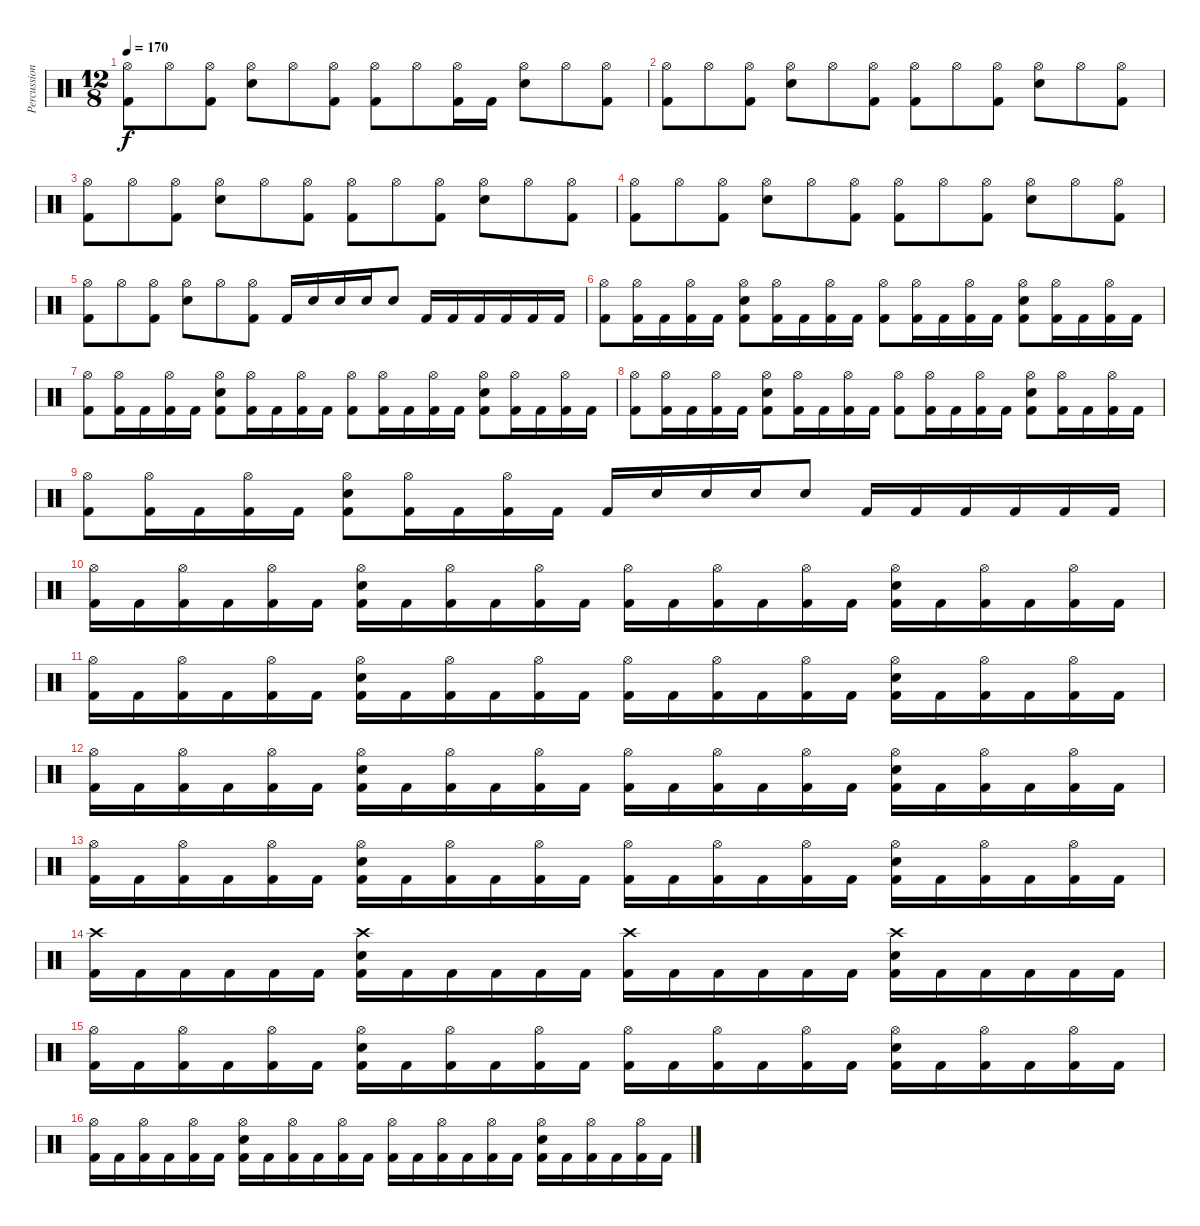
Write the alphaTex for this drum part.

\track ("Percussion" "Percussion") {instrument percussion}
\staff {score}
\articulation defaults
\ts (12 8)
\tempo 170
\clef neutral
\ks c
("Kick (hit) 2" "Hi-Hat (open)").8{dy f} "Hi-Hat (open)".8 ("Kick (hit) 2" "Hi-Hat (open)").8 ("Snare (hit) 2" "Hi-Hat (open)").8 "Hi-Hat (open)".8 ("Kick (hit) 2" "Hi-Hat (open)").8 ("Kick (hit) 2" "Hi-Hat (open)").8 "Hi-Hat (open)".8 ("Kick (hit) 2" "Hi-Hat (open)").16 "Kick (hit) 2".16 ("Snare (hit) 2" "Hi-Hat (open)").8 "Hi-Hat (open)".8 ("Kick (hit) 2" "Hi-Hat (open)").8 |
("Kick (hit) 2" "Hi-Hat (open)").8 "Hi-Hat (open)".8 ("Kick (hit) 2" "Hi-Hat (open)").8 ("Snare (hit) 2" "Hi-Hat (open)").8 "Hi-Hat (open)".8 ("Kick (hit) 2" "Hi-Hat (open)").8 ("Kick (hit) 2" "Hi-Hat (open)").8 "Hi-Hat (open)".8 ("Kick (hit) 2" "Hi-Hat (open)").8 ("Snare (hit) 2" "Hi-Hat (open)").8 "Hi-Hat (open)".8 ("Kick (hit) 2" "Hi-Hat (open)").8 |
("Kick (hit) 2" "Hi-Hat (open)").8 "Hi-Hat (open)".8 ("Kick (hit) 2" "Hi-Hat (open)").8 ("Snare (hit) 2" "Hi-Hat (open)").8 "Hi-Hat (open)".8 ("Kick (hit) 2" "Hi-Hat (open)").8 ("Kick (hit) 2" "Hi-Hat (open)").8 "Hi-Hat (open)".8 ("Kick (hit) 2" "Hi-Hat (open)").8 ("Snare (hit) 2" "Hi-Hat (open)").8 "Hi-Hat (open)".8 ("Kick (hit) 2" "Hi-Hat (open)").8 |
("Kick (hit) 2" "Hi-Hat (open)").8 "Hi-Hat (open)".8 ("Kick (hit) 2" "Hi-Hat (open)").8 ("Snare (hit) 2" "Hi-Hat (open)").8 "Hi-Hat (open)".8 ("Kick (hit) 2" "Hi-Hat (open)").8 ("Kick (hit) 2" "Hi-Hat (open)").8 "Hi-Hat (open)".8 ("Kick (hit) 2" "Hi-Hat (open)").8 ("Snare (hit) 2" "Hi-Hat (open)").8 "Hi-Hat (open)".8 ("Kick (hit) 2" "Hi-Hat (open)").8 |
("Kick (hit) 2" "Hi-Hat (open)").8 "Hi-Hat (open)".8 ("Kick (hit) 2" "Hi-Hat (open)").8 ("Snare (hit) 2" "Hi-Hat (open)").8 "Hi-Hat (open)".8 ("Kick (hit) 2" "Hi-Hat (open)").8 "Kick (hit) 2".16 "Snare (hit) 2".16 "Snare (hit) 2".16 "Snare (hit) 2".16 "Snare (hit) 2".8 "Kick (hit) 2".16 "Kick (hit) 2".16 "Kick (hit) 2".16 "Kick (hit) 2".16 "Kick (hit) 2".16 "Kick (hit) 2".16 |
("Kick (hit) 2" "Hi-Hat (open)").8 ("Kick (hit) 2" "Hi-Hat (open)").16 "Kick (hit) 2".16 ("Kick (hit) 2" "Hi-Hat (open)").16 "Kick (hit) 2".16 ("Kick (hit) 2" "Snare (hit) 2" "Hi-Hat (open)").8 ("Kick (hit) 2" "Hi-Hat (open)").16 "Kick (hit) 2".16 ("Kick (hit) 2" "Hi-Hat (open)").16 "Kick (hit) 2".16 ("Kick (hit) 2" "Hi-Hat (open)").8 ("Kick (hit) 2" "Hi-Hat (open)").16 "Kick (hit) 2".16 ("Kick (hit) 2" "Hi-Hat (open)").16 "Kick (hit) 2".16 ("Kick (hit) 2" "Snare (hit) 2" "Hi-Hat (open)").8 ("Kick (hit) 2" "Hi-Hat (open)").16 "Kick (hit) 2".16 ("Kick (hit) 2" "Hi-Hat (open)").16 "Kick (hit) 2".16 |
("Kick (hit) 2" "Hi-Hat (open)").8 ("Kick (hit) 2" "Hi-Hat (open)").16 "Kick (hit) 2".16 ("Kick (hit) 2" "Hi-Hat (open)").16 "Kick (hit) 2".16 ("Kick (hit) 2" "Snare (hit) 2" "Hi-Hat (open)").8 ("Kick (hit) 2" "Hi-Hat (open)").16 "Kick (hit) 2".16 ("Kick (hit) 2" "Hi-Hat (open)").16 "Kick (hit) 2".16 ("Kick (hit) 2" "Hi-Hat (open)").8 ("Kick (hit) 2" "Hi-Hat (open)").16 "Kick (hit) 2".16 ("Kick (hit) 2" "Hi-Hat (open)").16 "Kick (hit) 2".16 ("Kick (hit) 2" "Snare (hit) 2" "Hi-Hat (open)").8 ("Kick (hit) 2" "Hi-Hat (open)").16 "Kick (hit) 2".16 ("Kick (hit) 2" "Hi-Hat (open)").16 "Kick (hit) 2".16 |
("Kick (hit) 2" "Hi-Hat (open)").8 ("Kick (hit) 2" "Hi-Hat (open)").16 "Kick (hit) 2".16 ("Kick (hit) 2" "Hi-Hat (open)").16 "Kick (hit) 2".16 ("Kick (hit) 2" "Snare (hit) 2" "Hi-Hat (open)").8 ("Kick (hit) 2" "Hi-Hat (open)").16 "Kick (hit) 2".16 ("Kick (hit) 2" "Hi-Hat (open)").16 "Kick (hit) 2".16 ("Kick (hit) 2" "Hi-Hat (open)").8 ("Kick (hit) 2" "Hi-Hat (open)").16 "Kick (hit) 2".16 ("Kick (hit) 2" "Hi-Hat (open)").16 "Kick (hit) 2".16 ("Kick (hit) 2" "Snare (hit) 2" "Hi-Hat (open)").8 ("Kick (hit) 2" "Hi-Hat (open)").16 "Kick (hit) 2".16 ("Kick (hit) 2" "Hi-Hat (open)").16 "Kick (hit) 2".16 |
("Kick (hit) 2" "Hi-Hat (open)").8 ("Kick (hit) 2" "Hi-Hat (open)").16 "Kick (hit) 2".16 ("Kick (hit) 2" "Hi-Hat (open)").16 "Kick (hit) 2".16 ("Kick (hit) 2" "Snare (hit) 2" "Hi-Hat (open)").8 ("Kick (hit) 2" "Hi-Hat (open)").16 "Kick (hit) 2".16 ("Kick (hit) 2" "Hi-Hat (open)").16 "Kick (hit) 2".16 "Kick (hit) 2".16 "Snare (hit) 2".16 "Snare (hit) 2".16 "Snare (hit) 2".16 "Snare (hit) 2".8 "Kick (hit) 2".16 "Kick (hit) 2".16 "Kick (hit) 2".16 "Kick (hit) 2".16 "Kick (hit) 2".16 "Kick (hit) 2".16 |
("Kick (hit) 2" "Hi-Hat (open)").16 "Kick (hit) 2".16 ("Kick (hit) 2" "Hi-Hat (open)").16 "Kick (hit) 2".16 ("Kick (hit) 2" "Hi-Hat (open)").16 "Kick (hit) 2".16 ("Kick (hit) 2" "Snare (hit) 2" "Hi-Hat (open)").16 "Kick (hit) 2".16 ("Kick (hit) 2" "Hi-Hat (open)").16 "Kick (hit) 2".16 ("Kick (hit) 2" "Hi-Hat (open)").16 "Kick (hit) 2".16 ("Kick (hit) 2" "Hi-Hat (open)").16 "Kick (hit) 2".16 ("Kick (hit) 2" "Hi-Hat (open)").16 "Kick (hit) 2".16 ("Kick (hit) 2" "Hi-Hat (open)").16 "Kick (hit) 2".16 ("Kick (hit) 2" "Snare (hit) 2" "Hi-Hat (open)").16 "Kick (hit) 2".16 ("Kick (hit) 2" "Hi-Hat (open)").16 "Kick (hit) 2".16 ("Kick (hit) 2" "Hi-Hat (open)").16 "Kick (hit) 2".16 |
("Kick (hit) 2" "Hi-Hat (open)").16 "Kick (hit) 2".16 ("Kick (hit) 2" "Hi-Hat (open)").16 "Kick (hit) 2".16 ("Kick (hit) 2" "Hi-Hat (open)").16 "Kick (hit) 2".16 ("Kick (hit) 2" "Snare (hit) 2" "Hi-Hat (open)").16 "Kick (hit) 2".16 ("Kick (hit) 2" "Hi-Hat (open)").16 "Kick (hit) 2".16 ("Kick (hit) 2" "Hi-Hat (open)").16 "Kick (hit) 2".16 ("Kick (hit) 2" "Hi-Hat (open)").16 "Kick (hit) 2".16 ("Kick (hit) 2" "Hi-Hat (open)").16 "Kick (hit) 2".16 ("Kick (hit) 2" "Hi-Hat (open)").16 "Kick (hit) 2".16 ("Kick (hit) 2" "Snare (hit) 2" "Hi-Hat (open)").16 "Kick (hit) 2".16 ("Kick (hit) 2" "Hi-Hat (open)").16 "Kick (hit) 2".16 ("Kick (hit) 2" "Hi-Hat (open)").16 "Kick (hit) 2".16 |
("Kick (hit) 2" "Hi-Hat (open)").16 "Kick (hit) 2".16 ("Kick (hit) 2" "Hi-Hat (open)").16 "Kick (hit) 2".16 ("Kick (hit) 2" "Hi-Hat (open)").16 "Kick (hit) 2".16 ("Kick (hit) 2" "Snare (hit) 2" "Hi-Hat (open)").16 "Kick (hit) 2".16 ("Kick (hit) 2" "Hi-Hat (open)").16 "Kick (hit) 2".16 ("Kick (hit) 2" "Hi-Hat (open)").16 "Kick (hit) 2".16 ("Kick (hit) 2" "Hi-Hat (open)").16 "Kick (hit) 2".16 ("Kick (hit) 2" "Hi-Hat (open)").16 "Kick (hit) 2".16 ("Kick (hit) 2" "Hi-Hat (open)").16 "Kick (hit) 2".16 ("Kick (hit) 2" "Snare (hit) 2" "Hi-Hat (open)").16 "Kick (hit) 2".16 ("Kick (hit) 2" "Hi-Hat (open)").16 "Kick (hit) 2".16 ("Kick (hit) 2" "Hi-Hat (open)").16 "Kick (hit) 2".16 |
("Kick (hit) 2" "Hi-Hat (open)").16 "Kick (hit) 2".16 ("Kick (hit) 2" "Hi-Hat (open)").16 "Kick (hit) 2".16 ("Kick (hit) 2" "Hi-Hat (open)").16 "Kick (hit) 2".16 ("Kick (hit) 2" "Snare (hit) 2" "Hi-Hat (open)").16 "Kick (hit) 2".16 ("Kick (hit) 2" "Hi-Hat (open)").16 "Kick (hit) 2".16 ("Kick (hit) 2" "Hi-Hat (open)").16 "Kick (hit) 2".16 ("Kick (hit) 2" "Hi-Hat (open)").16 "Kick (hit) 2".16 ("Kick (hit) 2" "Hi-Hat (open)").16 "Kick (hit) 2".16 ("Kick (hit) 2" "Hi-Hat (open)").16 "Kick (hit) 2".16 ("Kick (hit) 2" "Snare (hit) 2" "Hi-Hat (open)").16 "Kick (hit) 2".16 ("Kick (hit) 2" "Hi-Hat (open)").16 "Kick (hit) 2".16 ("Kick (hit) 2" "Hi-Hat (open)").16 "Kick (hit) 2".16 |
("Kick (hit) 2" "Crash high (hit)").16 "Kick (hit) 2".16 "Kick (hit) 2".16 "Kick (hit) 2".16 "Kick (hit) 2".16 "Kick (hit) 2".16 ("Kick (hit) 2" "Snare (hit) 2" "Crash high (hit)").16 "Kick (hit) 2".16 "Kick (hit) 2".16 "Kick (hit) 2".16 "Kick (hit) 2".16 "Kick (hit) 2".16 ("Kick (hit) 2" "Crash high (hit)").16 "Kick (hit) 2".16 "Kick (hit) 2".16 "Kick (hit) 2".16 "Kick (hit) 2".16 "Kick (hit) 2".16 ("Kick (hit) 2" "Snare (hit) 2" "Crash high (hit)").16 "Kick (hit) 2".16 "Kick (hit) 2".16 "Kick (hit) 2".16 "Kick (hit) 2".16 "Kick (hit) 2".16 |
("Kick (hit) 2" "Hi-Hat (open)").16 "Kick (hit) 2".16 ("Kick (hit) 2" "Hi-Hat (open)").16 "Kick (hit) 2".16 ("Kick (hit) 2" "Hi-Hat (open)").16 "Kick (hit) 2".16 ("Kick (hit) 2" "Snare (hit) 2" "Hi-Hat (open)").16 "Kick (hit) 2".16 ("Kick (hit) 2" "Hi-Hat (open)").16 "Kick (hit) 2".16 ("Kick (hit) 2" "Hi-Hat (open)").16 "Kick (hit) 2".16 ("Kick (hit) 2" "Hi-Hat (open)").16 "Kick (hit) 2".16 ("Kick (hit) 2" "Hi-Hat (open)").16 "Kick (hit) 2".16 ("Kick (hit) 2" "Hi-Hat (open)").16 "Kick (hit) 2".16 ("Kick (hit) 2" "Snare (hit) 2" "Hi-Hat (open)").16 "Kick (hit) 2".16 ("Kick (hit) 2" "Hi-Hat (open)").16 "Kick (hit) 2".16 ("Kick (hit) 2" "Hi-Hat (open)").16 "Kick (hit) 2".16 |
("Kick (hit) 2" "Hi-Hat (open)").16 "Kick (hit) 2".16 ("Kick (hit) 2" "Hi-Hat (open)").16 "Kick (hit) 2".16 ("Kick (hit) 2" "Hi-Hat (open)").16 "Kick (hit) 2".16 ("Kick (hit) 2" "Snare (hit) 2" "Hi-Hat (open)").16 "Kick (hit) 2".16 ("Kick (hit) 2" "Hi-Hat (open)").16 "Kick (hit) 2".16 ("Kick (hit) 2" "Hi-Hat (open)").16 "Kick (hit) 2".16 ("Kick (hit) 2" "Hi-Hat (open)").16 "Kick (hit) 2".16 ("Kick (hit) 2" "Hi-Hat (open)").16 "Kick (hit) 2".16 ("Kick (hit) 2" "Hi-Hat (open)").16 "Kick (hit) 2".16 ("Kick (hit) 2" "Snare (hit) 2" "Hi-Hat (open)").16 "Kick (hit) 2".16 ("Kick (hit) 2" "Hi-Hat (open)").16 "Kick (hit) 2".16 ("Kick (hit) 2" "Hi-Hat (open)").16 "Kick (hit) 2".16
